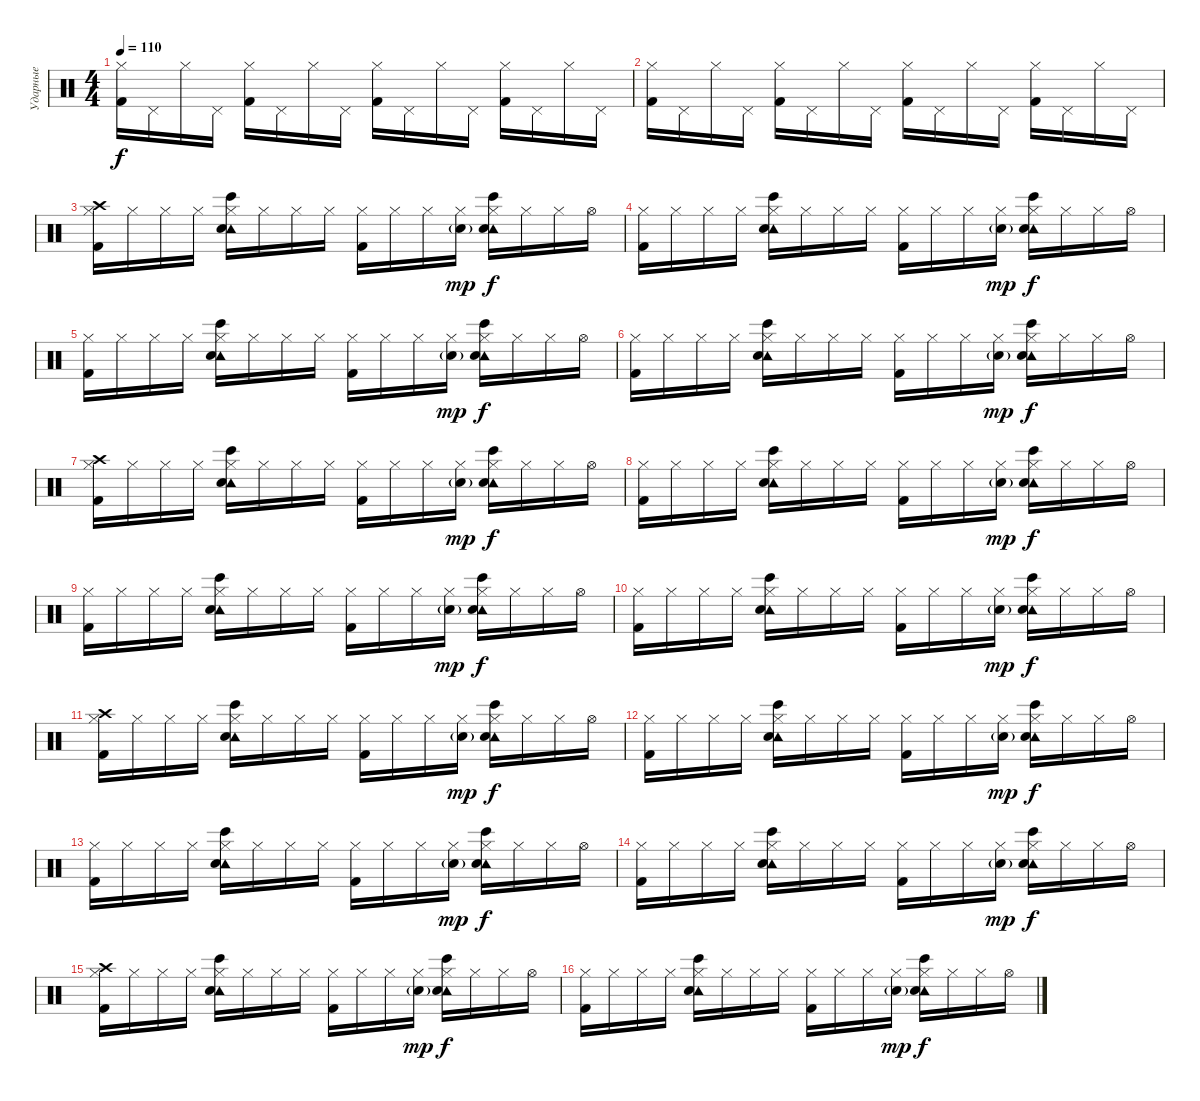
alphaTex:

\track ("Ударные" "Ударные") {instrument percussion}
\staff {score}
\articulation defaults
\ts (4 4)
\tempo 110
\clef neutral
\ks c
("Hi-Hat (closed)" "Kick (hit) 2").16{dy f} "Pedal Hi-Hat (hit)".16 "Hi-Hat (closed)".16 "Pedal Hi-Hat (hit)".16 ("Hi-Hat (closed)" "Kick (hit) 2").16 "Pedal Hi-Hat (hit)".16 "Hi-Hat (closed)".16 "Pedal Hi-Hat (hit)".16 ("Hi-Hat (closed)" "Kick (hit) 2").16 "Pedal Hi-Hat (hit)".16 "Hi-Hat (closed)".16 "Pedal Hi-Hat (hit)".16 ("Hi-Hat (closed)" "Kick (hit) 2").16 "Pedal Hi-Hat (hit)".16 "Hi-Hat (closed)".16 "Pedal Hi-Hat (hit)".16 |
("Hi-Hat (closed)" "Kick (hit) 2").16 "Pedal Hi-Hat (hit)".16 "Hi-Hat (closed)".16 "Pedal Hi-Hat (hit)".16 ("Hi-Hat (closed)" "Kick (hit) 2").16 "Pedal Hi-Hat (hit)".16 "Hi-Hat (closed)".16 "Pedal Hi-Hat (hit)".16 ("Hi-Hat (closed)" "Kick (hit) 2").16 "Pedal Hi-Hat (hit)".16 "Hi-Hat (closed)".16 "Pedal Hi-Hat (hit)".16 ("Hi-Hat (closed)" "Kick (hit) 2").16 "Pedal Hi-Hat (hit)".16 "Hi-Hat (closed)".16 "Pedal Hi-Hat (hit)".16 |
("Crash high (hit)" "Hi-Hat (closed)" "Kick (hit) 2").16 "Hi-Hat (closed)".16 "Hi-Hat (closed)".16 "Hi-Hat (closed)".16 ("Hi-Hat (closed)" "Tambourine (hit)" "Electric Snare (hit)" "Bongo High (hit)").16 "Hi-Hat (closed)".16 "Hi-Hat (closed)".16 "Hi-Hat (closed)".16 ("Hi-Hat (closed)" "Kick (hit) 2").16 "Hi-Hat (closed)".16 "Hi-Hat (closed)".16 ("Hi-Hat (closed)" "Electric Snare (hit)"{g}).16{dy mp} ("Hi-Hat (closed)" "Tambourine (hit)" "Electric Snare (hit)" "Bongo High (hit)").16{dy f} "Hi-Hat (closed)".16 "Hi-Hat (closed)".16 "Hi-Hat (open)".16 |
("Hi-Hat (closed)" "Kick (hit) 2").16 "Hi-Hat (closed)".16 "Hi-Hat (closed)".16 "Hi-Hat (closed)".16 ("Hi-Hat (closed)" "Tambourine (hit)" "Electric Snare (hit)" "Bongo High (hit)").16 "Hi-Hat (closed)".16 "Hi-Hat (closed)".16 "Hi-Hat (closed)".16 ("Hi-Hat (closed)" "Kick (hit) 2").16 "Hi-Hat (closed)".16 "Hi-Hat (closed)".16 ("Hi-Hat (closed)" "Electric Snare (hit)"{g}).16{dy mp} ("Hi-Hat (closed)" "Tambourine (hit)" "Electric Snare (hit)" "Bongo High (hit)").16{dy f} "Hi-Hat (closed)".16 "Hi-Hat (closed)".16 "Hi-Hat (open)".16 |
("Hi-Hat (closed)" "Kick (hit) 2").16 "Hi-Hat (closed)".16 "Hi-Hat (closed)".16 "Hi-Hat (closed)".16 ("Hi-Hat (closed)" "Tambourine (hit)" "Electric Snare (hit)" "Bongo High (hit)").16 "Hi-Hat (closed)".16 "Hi-Hat (closed)".16 "Hi-Hat (closed)".16 ("Hi-Hat (closed)" "Kick (hit) 2").16 "Hi-Hat (closed)".16 "Hi-Hat (closed)".16 ("Hi-Hat (closed)" "Electric Snare (hit)"{g}).16{dy mp} ("Hi-Hat (closed)" "Tambourine (hit)" "Electric Snare (hit)" "Bongo High (hit)").16{dy f} "Hi-Hat (closed)".16 "Hi-Hat (closed)".16 "Hi-Hat (open)".16 |
("Hi-Hat (closed)" "Kick (hit) 2").16 "Hi-Hat (closed)".16 "Hi-Hat (closed)".16 "Hi-Hat (closed)".16 ("Hi-Hat (closed)" "Tambourine (hit)" "Electric Snare (hit)" "Bongo High (hit)").16 "Hi-Hat (closed)".16 "Hi-Hat (closed)".16 "Hi-Hat (closed)".16 ("Hi-Hat (closed)" "Kick (hit) 2").16 "Hi-Hat (closed)".16 "Hi-Hat (closed)".16 ("Hi-Hat (closed)" "Electric Snare (hit)"{g}).16{dy mp} ("Hi-Hat (closed)" "Tambourine (hit)" "Electric Snare (hit)" "Bongo High (hit)").16{dy f} "Hi-Hat (closed)".16 "Hi-Hat (closed)".16 "Hi-Hat (open)".16 |
("Crash high (hit)" "Hi-Hat (closed)" "Kick (hit) 2").16 "Hi-Hat (closed)".16 "Hi-Hat (closed)".16 "Hi-Hat (closed)".16 ("Hi-Hat (closed)" "Tambourine (hit)" "Electric Snare (hit)" "Bongo High (hit)").16 "Hi-Hat (closed)".16 "Hi-Hat (closed)".16 "Hi-Hat (closed)".16 ("Hi-Hat (closed)" "Kick (hit) 2").16 "Hi-Hat (closed)".16 "Hi-Hat (closed)".16 ("Hi-Hat (closed)" "Electric Snare (hit)"{g}).16{dy mp} ("Hi-Hat (closed)" "Tambourine (hit)" "Electric Snare (hit)" "Bongo High (hit)").16{dy f} "Hi-Hat (closed)".16 "Hi-Hat (closed)".16 "Hi-Hat (open)".16 |
("Hi-Hat (closed)" "Kick (hit) 2").16 "Hi-Hat (closed)".16 "Hi-Hat (closed)".16 "Hi-Hat (closed)".16 ("Hi-Hat (closed)" "Tambourine (hit)" "Electric Snare (hit)" "Bongo High (hit)").16 "Hi-Hat (closed)".16 "Hi-Hat (closed)".16 "Hi-Hat (closed)".16 ("Hi-Hat (closed)" "Kick (hit) 2").16 "Hi-Hat (closed)".16 "Hi-Hat (closed)".16 ("Hi-Hat (closed)" "Electric Snare (hit)"{g}).16{dy mp} ("Hi-Hat (closed)" "Tambourine (hit)" "Electric Snare (hit)" "Bongo High (hit)").16{dy f} "Hi-Hat (closed)".16 "Hi-Hat (closed)".16 "Hi-Hat (open)".16 |
("Hi-Hat (closed)" "Kick (hit) 2").16 "Hi-Hat (closed)".16 "Hi-Hat (closed)".16 "Hi-Hat (closed)".16 ("Hi-Hat (closed)" "Tambourine (hit)" "Electric Snare (hit)" "Bongo High (hit)").16 "Hi-Hat (closed)".16 "Hi-Hat (closed)".16 "Hi-Hat (closed)".16 ("Hi-Hat (closed)" "Kick (hit) 2").16 "Hi-Hat (closed)".16 "Hi-Hat (closed)".16 ("Hi-Hat (closed)" "Electric Snare (hit)"{g}).16{dy mp} ("Hi-Hat (closed)" "Tambourine (hit)" "Electric Snare (hit)" "Bongo High (hit)").16{dy f} "Hi-Hat (closed)".16 "Hi-Hat (closed)".16 "Hi-Hat (open)".16 |
("Hi-Hat (closed)" "Kick (hit) 2").16 "Hi-Hat (closed)".16 "Hi-Hat (closed)".16 "Hi-Hat (closed)".16 ("Hi-Hat (closed)" "Tambourine (hit)" "Electric Snare (hit)" "Bongo High (hit)").16 "Hi-Hat (closed)".16 "Hi-Hat (closed)".16 "Hi-Hat (closed)".16 ("Hi-Hat (closed)" "Kick (hit) 2").16 "Hi-Hat (closed)".16 "Hi-Hat (closed)".16 ("Hi-Hat (closed)" "Electric Snare (hit)"{g}).16{dy mp} ("Hi-Hat (closed)" "Tambourine (hit)" "Electric Snare (hit)" "Bongo High (hit)").16{dy f} "Hi-Hat (closed)".16 "Hi-Hat (closed)".16 "Hi-Hat (open)".16 |
("Crash high (hit)" "Hi-Hat (closed)" "Kick (hit) 2").16 "Hi-Hat (closed)".16 "Hi-Hat (closed)".16 "Hi-Hat (closed)".16 ("Hi-Hat (closed)" "Tambourine (hit)" "Electric Snare (hit)" "Bongo High (hit)").16 "Hi-Hat (closed)".16 "Hi-Hat (closed)".16 "Hi-Hat (closed)".16 ("Hi-Hat (closed)" "Kick (hit) 2").16 "Hi-Hat (closed)".16 "Hi-Hat (closed)".16 ("Hi-Hat (closed)" "Electric Snare (hit)"{g}).16{dy mp} ("Hi-Hat (closed)" "Tambourine (hit)" "Electric Snare (hit)" "Bongo High (hit)").16{dy f} "Hi-Hat (closed)".16 "Hi-Hat (closed)".16 "Hi-Hat (open)".16 |
("Hi-Hat (closed)" "Kick (hit) 2").16 "Hi-Hat (closed)".16 "Hi-Hat (closed)".16 "Hi-Hat (closed)".16 ("Hi-Hat (closed)" "Tambourine (hit)" "Electric Snare (hit)" "Bongo High (hit)").16 "Hi-Hat (closed)".16 "Hi-Hat (closed)".16 "Hi-Hat (closed)".16 ("Hi-Hat (closed)" "Kick (hit) 2").16 "Hi-Hat (closed)".16 "Hi-Hat (closed)".16 ("Hi-Hat (closed)" "Electric Snare (hit)"{g}).16{dy mp} ("Hi-Hat (closed)" "Tambourine (hit)" "Electric Snare (hit)" "Bongo High (hit)").16{dy f} "Hi-Hat (closed)".16 "Hi-Hat (closed)".16 "Hi-Hat (open)".16 |
("Hi-Hat (closed)" "Kick (hit) 2").16 "Hi-Hat (closed)".16 "Hi-Hat (closed)".16 "Hi-Hat (closed)".16 ("Hi-Hat (closed)" "Tambourine (hit)" "Electric Snare (hit)" "Bongo High (hit)").16 "Hi-Hat (closed)".16 "Hi-Hat (closed)".16 "Hi-Hat (closed)".16 ("Hi-Hat (closed)" "Kick (hit) 2").16 "Hi-Hat (closed)".16 "Hi-Hat (closed)".16 ("Hi-Hat (closed)" "Electric Snare (hit)"{g}).16{dy mp} ("Hi-Hat (closed)" "Tambourine (hit)" "Electric Snare (hit)" "Bongo High (hit)").16{dy f} "Hi-Hat (closed)".16 "Hi-Hat (closed)".16 "Hi-Hat (open)".16 |
("Hi-Hat (closed)" "Kick (hit) 2").16 "Hi-Hat (closed)".16 "Hi-Hat (closed)".16 "Hi-Hat (closed)".16 ("Hi-Hat (closed)" "Tambourine (hit)" "Electric Snare (hit)" "Bongo High (hit)").16 "Hi-Hat (closed)".16 "Hi-Hat (closed)".16 "Hi-Hat (closed)".16 ("Hi-Hat (closed)" "Kick (hit) 2").16 "Hi-Hat (closed)".16 "Hi-Hat (closed)".16 ("Hi-Hat (closed)" "Electric Snare (hit)"{g}).16{dy mp} ("Hi-Hat (closed)" "Tambourine (hit)" "Electric Snare (hit)" "Bongo High (hit)").16{dy f} "Hi-Hat (closed)".16 "Hi-Hat (closed)".16 "Hi-Hat (open)".16 |
("Crash high (hit)" "Hi-Hat (closed)" "Kick (hit) 2").16 "Hi-Hat (closed)".16 "Hi-Hat (closed)".16 "Hi-Hat (closed)".16 ("Hi-Hat (closed)" "Tambourine (hit)" "Electric Snare (hit)" "Bongo High (hit)").16 "Hi-Hat (closed)".16 "Hi-Hat (closed)".16 "Hi-Hat (closed)".16 ("Hi-Hat (closed)" "Kick (hit) 2").16 "Hi-Hat (closed)".16 "Hi-Hat (closed)".16 ("Hi-Hat (closed)" "Electric Snare (hit)"{g}).16{dy mp} ("Hi-Hat (closed)" "Tambourine (hit)" "Electric Snare (hit)" "Bongo High (hit)").16{dy f} "Hi-Hat (closed)".16 "Hi-Hat (closed)".16 "Hi-Hat (open)".16 |
("Hi-Hat (closed)" "Kick (hit) 2").16 "Hi-Hat (closed)".16 "Hi-Hat (closed)".16 "Hi-Hat (closed)".16 ("Hi-Hat (closed)" "Tambourine (hit)" "Electric Snare (hit)" "Bongo High (hit)").16 "Hi-Hat (closed)".16 "Hi-Hat (closed)".16 "Hi-Hat (closed)".16 ("Hi-Hat (closed)" "Kick (hit) 2").16 "Hi-Hat (closed)".16 "Hi-Hat (closed)".16 ("Hi-Hat (closed)" "Electric Snare (hit)"{g}).16{dy mp} ("Hi-Hat (closed)" "Tambourine (hit)" "Electric Snare (hit)" "Bongo High (hit)").16{dy f} "Hi-Hat (closed)".16 "Hi-Hat (closed)".16 "Hi-Hat (open)".16
